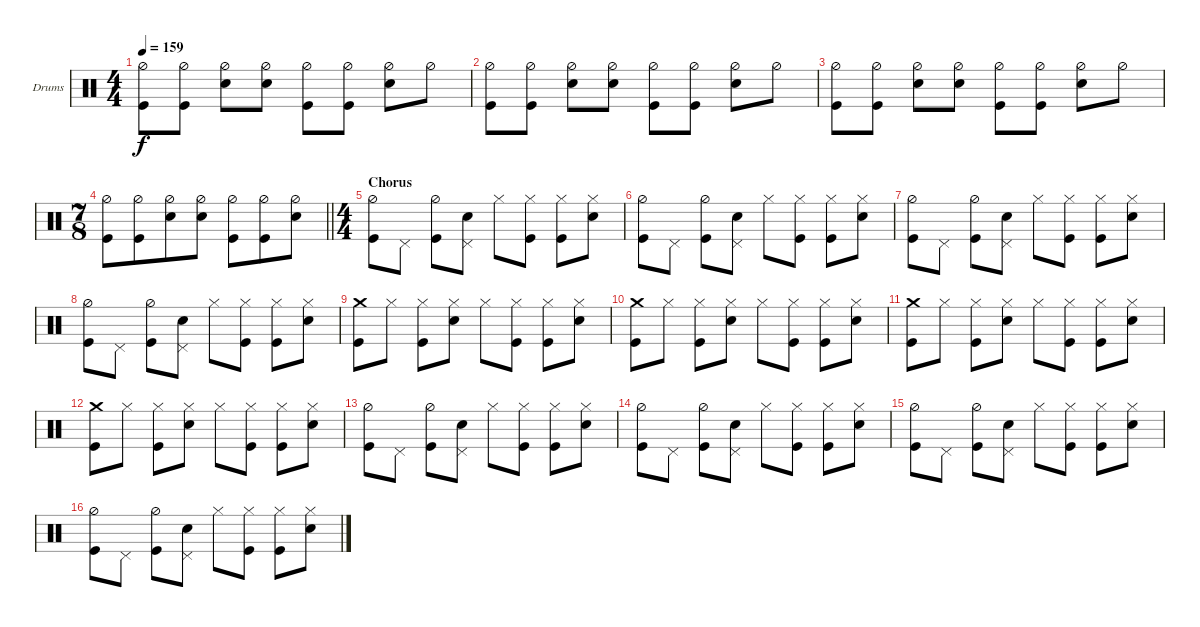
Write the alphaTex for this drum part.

\bracketExtendMode groupsimilarinstruments
\firstSystemTrackNameOrientation horizontal
\otherSystemsTrackNameOrientation horizontal
\track ("Fabrizio" "Drums") {instrument percussion}
\staff {score}
\articulation defaults
\ts (4 4)
\tempo 159
\clef neutral
\ks c
("Kick (hit)" "Hi-Hat (half)").8{dy f} ("Kick (hit)" "Hi-Hat (half)").8 ("Snare (hit) 2" "Hi-Hat (half)").8 ("Snare (hit) 2" "Hi-Hat (half)").8 ("Hi-Hat (half)" "Kick (hit)").8 ("Kick (hit)" "Hi-Hat (half)").8 ("Snare (hit) 2" "Hi-Hat (half)").8 "Hi-Hat (half)".8 |
("Kick (hit)" "Hi-Hat (half)").8 ("Kick (hit)" "Hi-Hat (half)").8 ("Snare (hit) 2" "Hi-Hat (half)").8 ("Snare (hit) 2" "Hi-Hat (half)").8 ("Hi-Hat (half)" "Kick (hit)").8 ("Kick (hit)" "Hi-Hat (half)").8 ("Snare (hit) 2" "Hi-Hat (half)").8 "Hi-Hat (half)".8 |
("Kick (hit)" "Hi-Hat (half)").8 ("Kick (hit)" "Hi-Hat (half)").8 ("Snare (hit) 2" "Hi-Hat (half)").8 ("Snare (hit) 2" "Hi-Hat (half)").8 ("Hi-Hat (half)" "Kick (hit)").8 ("Kick (hit)" "Hi-Hat (half)").8 ("Snare (hit) 2" "Hi-Hat (half)").8 "Hi-Hat (half)".8 |
\ts (7 8)
\barLineRight lightlight
("Kick (hit)" "Hi-Hat (half)").8 ("Kick (hit)" "Hi-Hat (half)").8 ("Snare (hit) 2" "Hi-Hat (half)").8 ("Snare (hit) 2" "Hi-Hat (half)").8 ("Hi-Hat (half)" "Kick (hit)").8 ("Kick (hit)" "Hi-Hat (half)").8 ("Snare (hit) 2" "Hi-Hat (half)").8 |
\ts (4 4)
\section ("" "Chorus")
("Hi-Hat (half)" "Kick (hit)").8 "Pedal Hi-Hat (hit)".8 ("Hi-Hat (half)" "Kick (hit)").8 ("Pedal Hi-Hat (hit)" "Snare (hit) 2").8 "Hi-Hat (closed)".8 ("Kick (hit)" "Hi-Hat (closed)").8 ("Kick (hit)" "Hi-Hat (closed)").8 ("Snare (hit) 2" "Hi-Hat (closed)").8 |
("Hi-Hat (half)" "Kick (hit)").8 "Pedal Hi-Hat (hit)".8 ("Hi-Hat (half)" "Kick (hit)").8 ("Pedal Hi-Hat (hit)" "Snare (hit) 2").8 "Hi-Hat (closed)".8 ("Kick (hit)" "Hi-Hat (closed)").8 ("Kick (hit)" "Hi-Hat (closed)").8 ("Snare (hit) 2" "Hi-Hat (closed)").8 |
("Hi-Hat (half)" "Kick (hit)").8 "Pedal Hi-Hat (hit)".8 ("Hi-Hat (half)" "Kick (hit)").8 ("Pedal Hi-Hat (hit)" "Snare (hit) 2").8 "Hi-Hat (closed)".8 ("Kick (hit)" "Hi-Hat (closed)").8 ("Kick (hit)" "Hi-Hat (closed)").8 ("Snare (hit) 2" "Hi-Hat (closed)").8 |
("Hi-Hat (half)" "Kick (hit)").8 "Pedal Hi-Hat (hit)".8 ("Hi-Hat (half)" "Kick (hit)").8 ("Pedal Hi-Hat (hit)" "Snare (hit) 2").8 "Hi-Hat (closed)".8 ("Kick (hit)" "Hi-Hat (closed)").8 ("Kick (hit)" "Hi-Hat (closed)").8 ("Snare (hit) 2" "Hi-Hat (closed)").8 |
("Crash medium (hit)" "Kick (hit)").8 "Hi-Hat (closed)".8 ("Kick (hit)" "Hi-Hat (closed)").8 ("Snare (hit) 2" "Hi-Hat (closed)").8 "Hi-Hat (closed)".8 ("Kick (hit)" "Hi-Hat (closed)").8 ("Kick (hit)" "Hi-Hat (closed)").8 ("Snare (hit) 2" "Hi-Hat (closed)").8 |
("Crash medium (hit)" "Kick (hit)").8 "Hi-Hat (closed)".8 ("Kick (hit)" "Hi-Hat (closed)").8 ("Snare (hit) 2" "Hi-Hat (closed)").8 "Hi-Hat (closed)".8 ("Kick (hit)" "Hi-Hat (closed)").8 ("Kick (hit)" "Hi-Hat (closed)").8 ("Snare (hit) 2" "Hi-Hat (closed)").8 |
("Crash medium (hit)" "Kick (hit)").8 "Hi-Hat (closed)".8 ("Kick (hit)" "Hi-Hat (closed)").8 ("Snare (hit) 2" "Hi-Hat (closed)").8 "Hi-Hat (closed)".8 ("Kick (hit)" "Hi-Hat (closed)").8 ("Kick (hit)" "Hi-Hat (closed)").8 ("Snare (hit) 2" "Hi-Hat (closed)").8 |
("Crash medium (hit)" "Kick (hit)").8 "Hi-Hat (closed)".8 ("Kick (hit)" "Hi-Hat (closed)").8 ("Snare (hit) 2" "Hi-Hat (closed)").8 "Hi-Hat (closed)".8 ("Kick (hit)" "Hi-Hat (closed)").8 ("Kick (hit)" "Hi-Hat (closed)").8 ("Snare (hit) 2" "Hi-Hat (closed)").8 |
("Hi-Hat (half)" "Kick (hit)").8 "Pedal Hi-Hat (hit)".8 ("Hi-Hat (half)" "Kick (hit)").8 ("Pedal Hi-Hat (hit)" "Snare (hit) 2").8 "Hi-Hat (closed)".8 ("Kick (hit)" "Hi-Hat (closed)").8 ("Kick (hit)" "Hi-Hat (closed)").8 ("Snare (hit) 2" "Hi-Hat (closed)").8 |
("Hi-Hat (half)" "Kick (hit)").8 "Pedal Hi-Hat (hit)".8 ("Hi-Hat (half)" "Kick (hit)").8 ("Pedal Hi-Hat (hit)" "Snare (hit) 2").8 "Hi-Hat (closed)".8 ("Kick (hit)" "Hi-Hat (closed)").8 ("Kick (hit)" "Hi-Hat (closed)").8 ("Snare (hit) 2" "Hi-Hat (closed)").8 |
("Hi-Hat (half)" "Kick (hit)").8 "Pedal Hi-Hat (hit)".8 ("Hi-Hat (half)" "Kick (hit)").8 ("Pedal Hi-Hat (hit)" "Snare (hit) 2").8 "Hi-Hat (closed)".8 ("Kick (hit)" "Hi-Hat (closed)").8 ("Kick (hit)" "Hi-Hat (closed)").8 ("Snare (hit) 2" "Hi-Hat (closed)").8 |
("Hi-Hat (half)" "Kick (hit)").8 "Pedal Hi-Hat (hit)".8 ("Hi-Hat (half)" "Kick (hit)").8 ("Pedal Hi-Hat (hit)" "Snare (hit) 2").8 "Hi-Hat (closed)".8 ("Kick (hit)" "Hi-Hat (closed)").8 ("Kick (hit)" "Hi-Hat (closed)").8 ("Snare (hit) 2" "Hi-Hat (closed)").8
